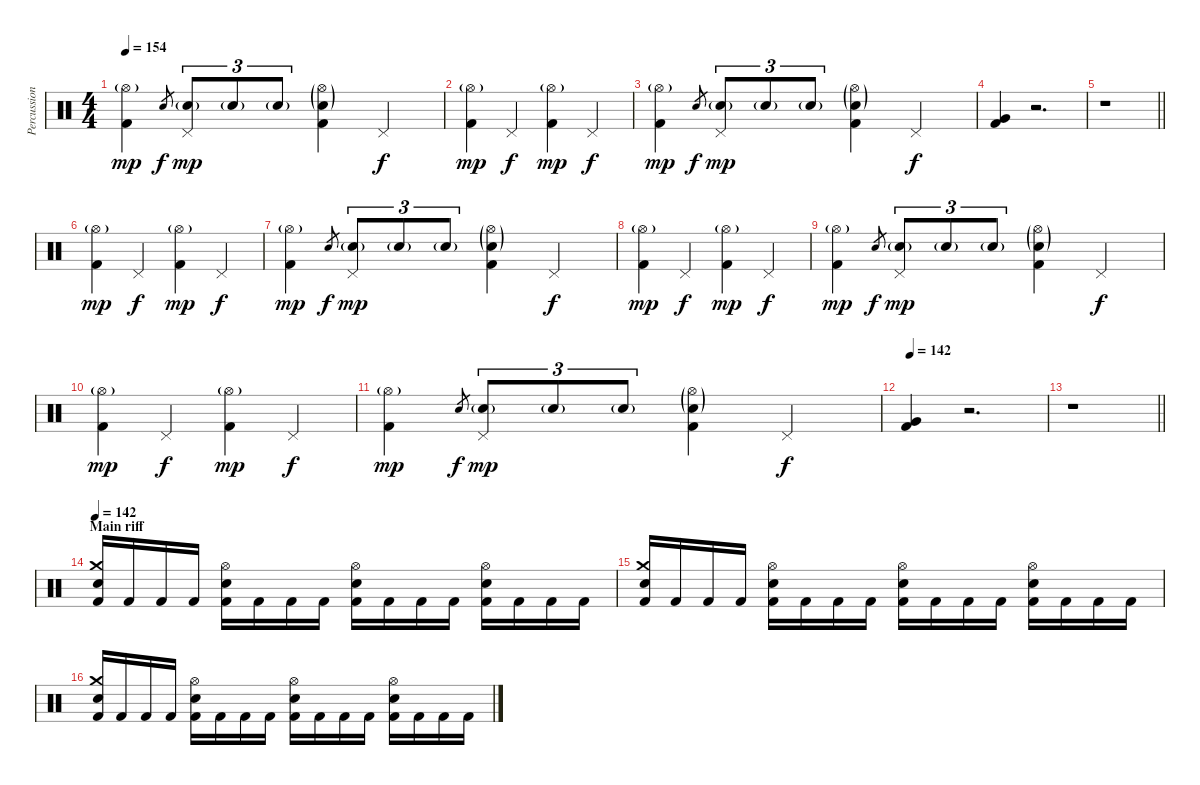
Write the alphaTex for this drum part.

\track ("Percussion" "Percussion") {instrument percussion}
\staff {score}
\articulation defaults
\ts (4 4)
\tempo 154
\clef neutral
\ks c
("Hi-Hat (open)"{g} "Kick (hit) 2").4{dy mp} "Electric Snare (hit)".8{gr dy f} ("Pedal Hi-Hat (hit)" "Electric Snare (hit)"{g}).8{tu (3 2) dy mp} "Electric Snare (hit)"{g}.8{tu (3 2)} "Electric Snare (hit)"{g}.8{tu (3 2)} ("Hi-Hat (open)"{g} "Electric Snare (hit)"{g} "Kick (hit) 2").4 "Pedal Hi-Hat (hit)".4{dy f} |
("Hi-Hat (open)"{g} "Kick (hit) 2").4{dy mp} "Pedal Hi-Hat (hit)".4{dy f} ("Hi-Hat (open)"{g} "Kick (hit) 2").4{dy mp} "Pedal Hi-Hat (hit)".4{dy f} |
("Hi-Hat (open)"{g} "Kick (hit) 2").4{dy mp} "Electric Snare (hit)".8{gr dy f} ("Pedal Hi-Hat (hit)" "Electric Snare (hit)"{g}).8{tu (3 2) dy mp} "Electric Snare (hit)"{g}.8{tu (3 2)} "Electric Snare (hit)"{g}.8{tu (3 2)} ("Hi-Hat (open)"{g} "Electric Snare (hit)"{g} "Kick (hit) 2").4 "Pedal Hi-Hat (hit)".4{dy f} |
("Very Low Tom (hit)" "Kick (hit) 2").4 r.2{d} |
\barLineRight lightlight
r.1 |
\section ("" "")
("Hi-Hat (open)"{g} "Kick (hit) 2").4{dy mp} "Pedal Hi-Hat (hit)".4{dy f} ("Hi-Hat (open)"{g} "Kick (hit) 2").4{dy mp} "Pedal Hi-Hat (hit)".4{dy f} |
("Hi-Hat (open)"{g} "Kick (hit) 2").4{dy mp} "Electric Snare (hit)".8{gr dy f} ("Pedal Hi-Hat (hit)" "Electric Snare (hit)"{g}).8{tu (3 2) dy mp} "Electric Snare (hit)"{g}.8{tu (3 2)} "Electric Snare (hit)"{g}.8{tu (3 2)} ("Hi-Hat (open)"{g} "Electric Snare (hit)"{g} "Kick (hit) 2").4 "Pedal Hi-Hat (hit)".4{dy f} |
("Hi-Hat (open)"{g} "Kick (hit) 2").4{dy mp} "Pedal Hi-Hat (hit)".4{dy f} ("Hi-Hat (open)"{g} "Kick (hit) 2").4{dy mp} "Pedal Hi-Hat (hit)".4{dy f} |
("Hi-Hat (open)"{g} "Kick (hit) 2").4{dy mp} "Electric Snare (hit)".8{gr dy f} ("Pedal Hi-Hat (hit)" "Electric Snare (hit)"{g}).8{tu (3 2) dy mp} "Electric Snare (hit)"{g}.8{tu (3 2)} "Electric Snare (hit)"{g}.8{tu (3 2)} ("Hi-Hat (open)"{g} "Electric Snare (hit)"{g} "Kick (hit) 2").4 "Pedal Hi-Hat (hit)".4{dy f} |
("Hi-Hat (open)"{g} "Kick (hit) 2").4{dy mp} "Pedal Hi-Hat (hit)".4{dy f} ("Hi-Hat (open)"{g} "Kick (hit) 2").4{dy mp} "Pedal Hi-Hat (hit)".4{dy f} |
("Hi-Hat (open)"{g} "Kick (hit) 2").4{dy mp} "Electric Snare (hit)".8{gr dy f} ("Pedal Hi-Hat (hit)" "Electric Snare (hit)"{g}).8{tu (3 2) dy mp} "Electric Snare (hit)"{g}.8{tu (3 2)} "Electric Snare (hit)"{g}.8{tu (3 2)} ("Hi-Hat (open)"{g} "Electric Snare (hit)"{g} "Kick (hit) 2").4 "Pedal Hi-Hat (hit)".4{dy f} |
\tempo 142
("Very Low Tom (hit)" "Kick (hit) 2").4 r.2{d} |
\barLineRight lightlight
r.1 |
\section ("" "Main riff")
\tempo 142
("Crash medium (hit)" "Snare (hit) 2" "Kick (hit) 2").16 "Kick (hit) 2".16 "Kick (hit) 2".16 "Kick (hit) 2".16 ("Hi-Hat (open)" "Snare (hit) 2" "Kick (hit) 2").16 "Kick (hit) 2".16 "Kick (hit) 2".16 "Kick (hit) 2".16 ("Hi-Hat (open)" "Snare (hit) 2" "Kick (hit) 2").16 "Kick (hit) 2".16 "Kick (hit) 2".16 "Kick (hit) 2".16 ("Hi-Hat (open)" "Snare (hit) 2" "Kick (hit) 2").16 "Kick (hit) 2".16 "Kick (hit) 2".16 "Kick (hit) 2".16 |
("Crash medium (hit)" "Snare (hit) 2" "Kick (hit) 2").16 "Kick (hit) 2".16 "Kick (hit) 2".16 "Kick (hit) 2".16 ("Hi-Hat (open)" "Snare (hit) 2" "Kick (hit) 2").16 "Kick (hit) 2".16 "Kick (hit) 2".16 "Kick (hit) 2".16 ("Hi-Hat (open)" "Snare (hit) 2" "Kick (hit) 2").16 "Kick (hit) 2".16 "Kick (hit) 2".16 "Kick (hit) 2".16 ("Hi-Hat (open)" "Snare (hit) 2" "Kick (hit) 2").16 "Kick (hit) 2".16 "Kick (hit) 2".16 "Kick (hit) 2".16 |
("Crash medium (hit)" "Snare (hit) 2" "Kick (hit) 2").16 "Kick (hit) 2".16 "Kick (hit) 2".16 "Kick (hit) 2".16 ("Hi-Hat (open)" "Snare (hit) 2" "Kick (hit) 2").16 "Kick (hit) 2".16 "Kick (hit) 2".16 "Kick (hit) 2".16 ("Hi-Hat (open)" "Snare (hit) 2" "Kick (hit) 2").16 "Kick (hit) 2".16 "Kick (hit) 2".16 "Kick (hit) 2".16 ("Hi-Hat (open)" "Snare (hit) 2" "Kick (hit) 2").16 "Kick (hit) 2".16 "Kick (hit) 2".16 "Kick (hit) 2".16
